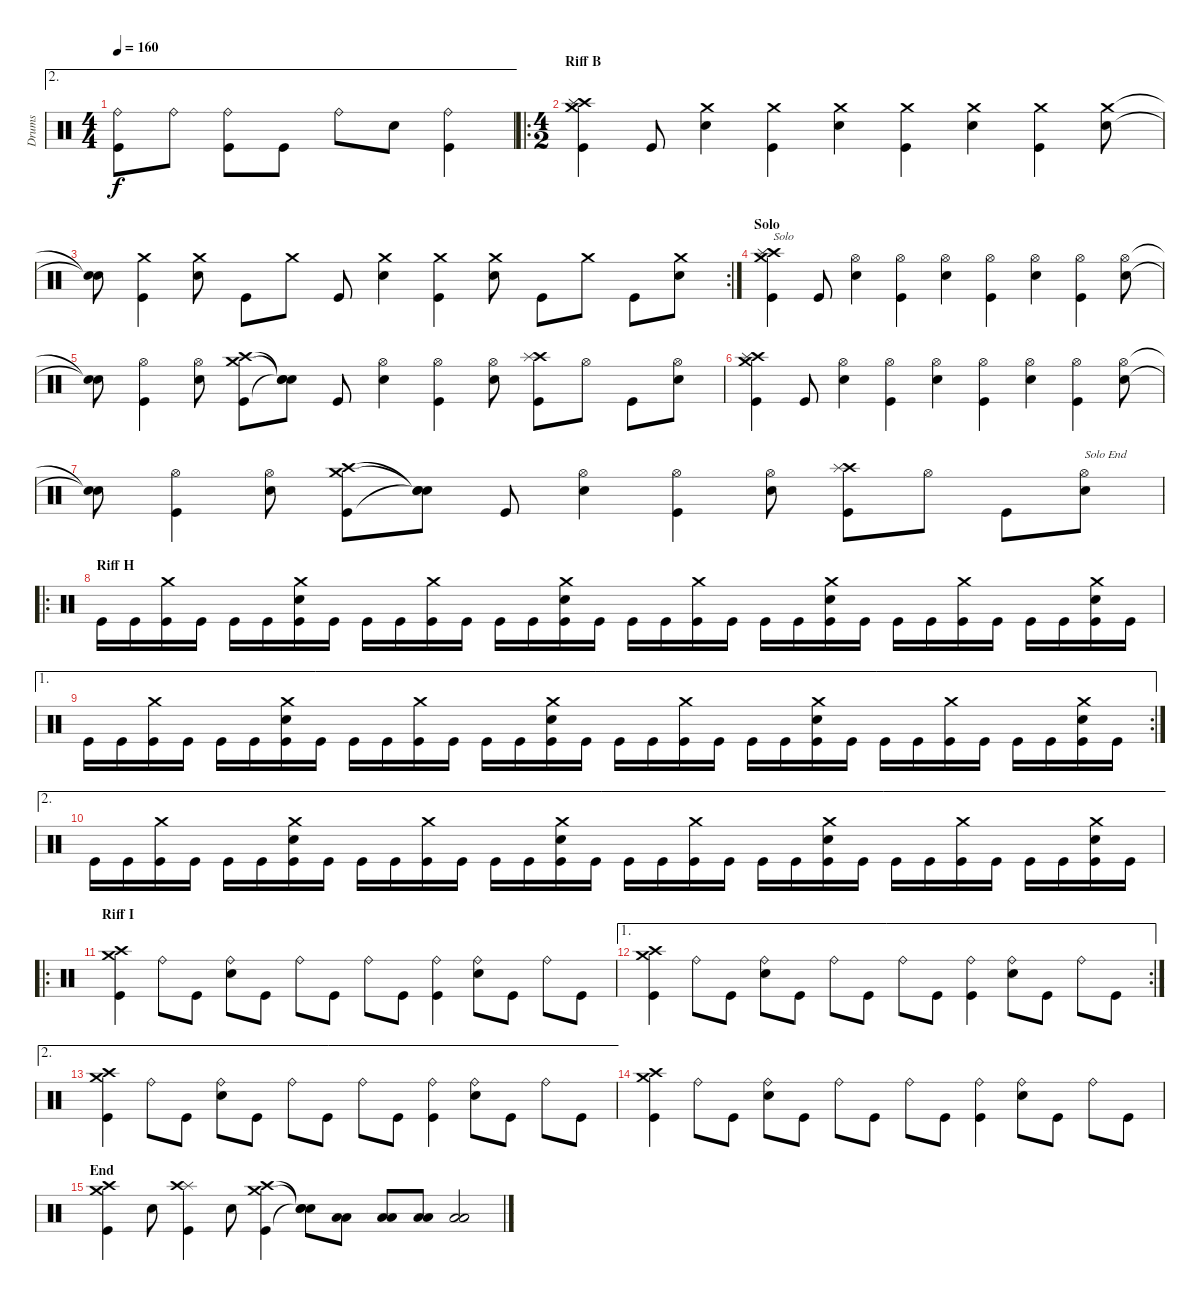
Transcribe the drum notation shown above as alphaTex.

\track ("Drums" "Drums") {instrument percussion}
\staff {score}
\articulation defaults
\ae 2
\ts (4 4)
\tempo 160
\clef neutral
\ks c
("Kick (hit)" "Ride (bell)").8{dy f} "Ride (bell)".8 ("Kick (hit)" "Ride (bell)").8 "Kick (hit)".8 "Ride (bell)".8 "Electric Snare (hit)".8 ("Kick (hit)" "Ride (bell)").4 |
\ro
\ts (4 2)
\section ("" "Riff B")
("Kick (hit)" "Crash medium (hit)" "Crash high (hit)" "Splash (hit)").4 "Kick (hit)".8 ("Crash medium (hit)" "Electric Snare (hit)").4 ("Kick (hit)" "Crash medium (hit)").4 ("Crash medium (hit)" "Electric Snare (hit)").4 ("Kick (hit)" "Crash medium (hit)").4 ("Crash medium (hit)" "Electric Snare (hit)").4 ("Kick (hit)" "Crash medium (hit)").4 ("Crash medium (hit)" "Electric Snare (hit)").8 |
\rc 2
("Snare (hit)"{t} "Snare (hit)"{t}).8 ("Kick (hit)" "Crash medium (hit)").4 ("Crash medium (hit)" "Electric Snare (hit)").8 "Kick (hit)".8 "Crash medium (hit)".8 "Kick (hit)".8 ("Crash medium (hit)" "Electric Snare (hit)").4 ("Kick (hit)" "Crash medium (hit)").4 ("Crash medium (hit)" "Electric Snare (hit)").8 "Kick (hit)".8 "Crash medium (hit)".8 "Kick (hit)".8 ("Crash medium (hit)" "Electric Snare (hit)").8 |
\section ("" "Solo")
("Kick (hit)" "Crash medium (hit)" "Crash high (hit)" "Splash (hit)").4{txt "Solo"} "Kick (hit)".8 ("Hi-Hat (open)" "Electric Snare (hit)").4 ("Kick (hit)" "Hi-Hat (open)").4 ("Hi-Hat (open)" "Electric Snare (hit)").4 ("Kick (hit)" "Hi-Hat (open)").4 ("Hi-Hat (open)" "Electric Snare (hit)").4 ("Kick (hit)" "Hi-Hat (open)").4 ("Hi-Hat (open)" "Electric Snare (hit)").8 |
("Snare (hit)"{t} "Snare (hit)"{t}).8 ("Kick (hit)" "Hi-Hat (open)").4 ("Hi-Hat (open)" "Electric Snare (hit)").8 ("Kick (hit)" "Crash medium (hit)" "Crash high (hit)").8 ("Snare (hit)"{t} "Snare (hit)"{t} "Snare (hit)"{t}).8 "Kick (hit)".8 ("Hi-Hat (open)" "Electric Snare (hit)").4 ("Kick (hit)" "Hi-Hat (open)").4 ("Hi-Hat (open)" "Electric Snare (hit)").8 ("Kick (hit)" "Crash high (hit)" "Splash (hit)").8 "Hi-Hat (open)".8 "Kick (hit)".8 ("Hi-Hat (open)" "Electric Snare (hit)").8 |
("Kick (hit)" "Crash medium (hit)" "Crash high (hit)" "Splash (hit)").4 "Kick (hit)".8 ("Hi-Hat (open)" "Electric Snare (hit)").4 ("Kick (hit)" "Hi-Hat (open)").4 ("Hi-Hat (open)" "Electric Snare (hit)").4 ("Kick (hit)" "Hi-Hat (open)").4 ("Hi-Hat (open)" "Electric Snare (hit)").4 ("Kick (hit)" "Hi-Hat (open)").4 ("Hi-Hat (open)" "Electric Snare (hit)").8 |
("Snare (hit)"{t} "Snare (hit)"{t}).8 ("Kick (hit)" "Hi-Hat (open)").4 ("Hi-Hat (open)" "Electric Snare (hit)").8 ("Kick (hit)" "Crash medium (hit)" "Crash high (hit)").8 ("Snare (hit)"{t} "Snare (hit)"{t} "Snare (hit)"{t}).8 "Kick (hit)".8 ("Hi-Hat (open)" "Electric Snare (hit)").4 ("Kick (hit)" "Hi-Hat (open)").4 ("Hi-Hat (open)" "Electric Snare (hit)").8 ("Kick (hit)" "Crash high (hit)" "Splash (hit)").8 "Hi-Hat (open)".8 "Kick (hit)".8 ("Hi-Hat (open)" "Electric Snare (hit)").8{txt "Solo End"} |
\ro
\section ("" "Riff H")
"Kick (hit)".16 "Kick (hit)".16 ("Kick (hit)" "Crash medium (hit)").16 "Kick (hit)".16 "Kick (hit)".16 "Kick (hit)".16 ("Kick (hit)" "Crash medium (hit)" "Electric Snare (hit)").16 "Kick (hit)".16 "Kick (hit)".16 "Kick (hit)".16 ("Kick (hit)" "Crash medium (hit)").16 "Kick (hit)".16 "Kick (hit)".16 "Kick (hit)".16 ("Kick (hit)" "Crash medium (hit)" "Electric Snare (hit)").16 "Kick (hit)".16 "Kick (hit)".16 "Kick (hit)".16 ("Kick (hit)" "Crash medium (hit)").16 "Kick (hit)".16 "Kick (hit)".16 "Kick (hit)".16 ("Kick (hit)" "Crash medium (hit)" "Electric Snare (hit)").16 "Kick (hit)".16 "Kick (hit)".16 "Kick (hit)".16 ("Kick (hit)" "Crash medium (hit)").16 "Kick (hit)".16 "Kick (hit)".16 "Kick (hit)".16 ("Kick (hit)" "Crash medium (hit)" "Electric Snare (hit)").16 "Kick (hit)".16 |
\ae 1
\rc 2 "Kick (hit)".16 "Kick (hit)".16
("Kick (hit)" "Crash medium (hit)").16 "Kick (hit)".16 "Kick (hit)".16 "Kick (hit)".16 ("Kick (hit)" "Crash medium (hit)" "Electric Snare (hit)").16 "Kick (hit)".16 "Kick (hit)".16 "Kick (hit)".16 ("Kick (hit)" "Crash medium (hit)").16 "Kick (hit)".16 "Kick (hit)".16 "Kick (hit)".16 ("Kick (hit)" "Crash medium (hit)" "Electric Snare (hit)").16 "Kick (hit)".16 "Kick (hit)".16 "Kick (hit)".16 ("Kick (hit)" "Crash medium (hit)").16 "Kick (hit)".16 "Kick (hit)".16 "Kick (hit)".16 ("Kick (hit)" "Crash medium (hit)" "Electric Snare (hit)").16 "Kick (hit)".16 "Kick (hit)".16 "Kick (hit)".16 ("Kick (hit)" "Crash medium (hit)").16 "Kick (hit)".16 "Kick (hit)".16 "Kick (hit)".16 ("Kick (hit)" "Crash medium (hit)" "Electric Snare (hit)").16 "Kick (hit)".16 |
\ae 2 "Kick (hit)".16 "Kick (hit)".16
("Kick (hit)" "Crash medium (hit)").16 "Kick (hit)".16 "Kick (hit)".16 "Kick (hit)".16 ("Kick (hit)" "Crash medium (hit)" "Electric Snare (hit)").16 "Kick (hit)".16 "Kick (hit)".16 "Kick (hit)".16 ("Kick (hit)" "Crash medium (hit)").16 "Kick (hit)".16 "Kick (hit)".16 "Kick (hit)".16 ("Kick (hit)" "Crash medium (hit)" "Electric Snare (hit)").16 "Kick (hit)".16 "Kick (hit)".16 "Kick (hit)".16 ("Kick (hit)" "Crash medium (hit)").16 "Kick (hit)".16 "Kick (hit)".16 "Kick (hit)".16 ("Kick (hit)" "Crash medium (hit)" "Electric Snare (hit)").16 "Kick (hit)".16 "Kick (hit)".16 "Kick (hit)".16 ("Kick (hit)" "Crash medium (hit)").16 "Kick (hit)".16 "Kick (hit)".16 "Kick (hit)".16 ("Kick (hit)" "Crash medium (hit)" "Electric Snare (hit)").16 "Kick (hit)".16 |
\ro
\section ("" "Riff I")
("Kick (hit)" "Crash high (hit)" "Crash medium (hit)").4 "Ride (bell)".8 "Kick (hit)".8 ("Electric Snare (hit)" "Ride (bell)").8 "Kick (hit)".8 "Ride (bell)".8 "Kick (hit)".8 "Ride (bell)".8 "Kick (hit)".8 ("Kick (hit)" "Ride (bell)").4 ("Electric Snare (hit)" "Ride (bell)").8 "Kick (hit)".8 "Ride (bell)".8 "Kick (hit)".8 |
\ae 1
\rc 2
("Kick (hit)" "Crash high (hit)" "Crash medium (hit)").4 "Ride (bell)".8 "Kick (hit)".8 ("Electric Snare (hit)" "Ride (bell)").8 "Kick (hit)".8 "Ride (bell)".8 "Kick (hit)".8 "Ride (bell)".8 "Kick (hit)".8 ("Kick (hit)" "Ride (bell)").4 ("Electric Snare (hit)" "Ride (bell)").8 "Kick (hit)".8 "Ride (bell)".8 "Kick (hit)".8 |
\ae 2
("Kick (hit)" "Crash high (hit)" "Crash medium (hit)").4 "Ride (bell)".8 "Kick (hit)".8 ("Electric Snare (hit)" "Ride (bell)").8 "Kick (hit)".8 "Ride (bell)".8 "Kick (hit)".8 "Ride (bell)".8 "Kick (hit)".8 ("Kick (hit)" "Ride (bell)").4 ("Electric Snare (hit)" "Ride (bell)").8 "Kick (hit)".8 "Ride (bell)".8 "Kick (hit)".8 |
("Kick (hit)" "Crash high (hit)" "Crash medium (hit)").4 "Ride (bell)".8 "Kick (hit)".8 ("Electric Snare (hit)" "Ride (bell)").8 "Kick (hit)".8 "Ride (bell)".8 "Kick (hit)".8 "Ride (bell)".8 "Kick (hit)".8 ("Kick (hit)" "Ride (bell)").4 ("Electric Snare (hit)" "Ride (bell)").8 "Kick (hit)".8 "Ride (bell)".8 "Kick (hit)".8 |
\section ("" "End")
("Kick (hit)" "Crash medium (hit)" "Crash high (hit)").4 "Electric Snare (hit)".8 ("Kick (hit)" "Splash (hit)" "Crash high (hit)").4 "Electric Snare (hit)".8 ("Kick (hit)" "Crash medium (hit)" "Crash high (hit)").4 ("Snare (hit)"{t} "Snare (hit)"{t} "Snare (hit)"{t}).8 ("Low Floor Tom (hit)" "Low Tom (hit)").8 ("Low Floor Tom (hit)" "Low Tom (hit)").8 ("Low Floor Tom (hit)" "Low Tom (hit)").8 ("Low Floor Tom (hit)" "Low Tom (hit)").2
